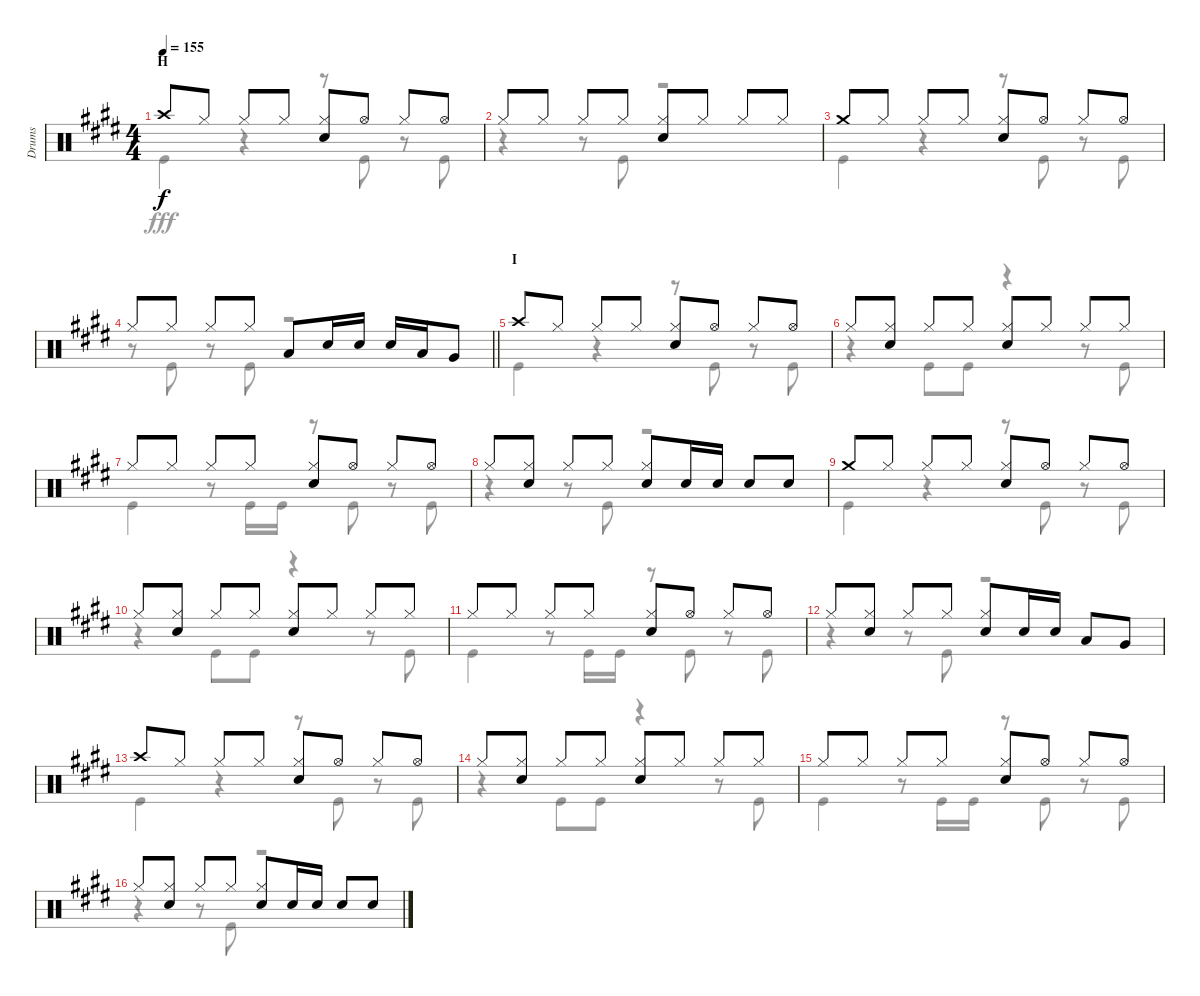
\track ("Drums" "Drums") {instrument percussion}
\staff {score}
\articulation defaults
\voice
\ts (4 4)
\section ("" "H")
\tempo 155
\clef neutral
\ks e "Crash high (hit)".8{dy f} "Hi-Hat (closed)".8 "Hi-Hat (closed)".8 "Hi-Hat (closed)".8
("Hi-Hat (closed)" "Snare (hit) 2").8 "Hi-Hat (open)".8 "Hi-Hat (closed)".8 "Hi-Hat (open)".8 |
"Hi-Hat (closed)".8 "Hi-Hat (closed)".8 "Hi-Hat (closed)".8 "Hi-Hat (closed)".8 ("Hi-Hat (closed)" "Snare (hit) 2").8 "Hi-Hat (closed)".8 "Hi-Hat (closed)".8 "Hi-Hat (closed)".8 |
"Crash medium (hit)".8 "Hi-Hat (closed)".8 "Hi-Hat (closed)".8 "Hi-Hat (closed)".8 ("Hi-Hat (closed)" "Snare (hit) 2").8 "Hi-Hat (open)".8 "Hi-Hat (closed)".8 "Hi-Hat (open)".8 |
\barLineRight lightlight "Hi-Hat (closed)".8 "Hi-Hat (closed)".8 "Hi-Hat (closed)".8 "Hi-Hat (closed)".8 "Low Tom (hit)".8 "Snare (hit) 2".16 "Snare (hit) 2".16 "Snare (hit) 2".16 "Low Tom (hit)".16 "Very Low Tom (hit)".8
|
\section ("" "I")
"Crash high (hit)".8 "Hi-Hat (closed)".8 "Hi-Hat (closed)".8 "Hi-Hat (closed)".8 ("Hi-Hat (closed)" "Snare (hit) 2").8 "Hi-Hat (open)".8 "Hi-Hat (closed)".8 "Hi-Hat (open)".8 |
"Hi-Hat (closed)".8 ("Hi-Hat (closed)" "Snare (hit) 2").8 "Hi-Hat (closed)".8 "Hi-Hat (closed)".8 ("Hi-Hat (closed)" "Snare (hit) 2").8 "Hi-Hat (closed)".8 "Hi-Hat (closed)".8 "Hi-Hat (closed)".8 |
"Hi-Hat (closed)".8 "Hi-Hat (closed)".8 "Hi-Hat (closed)".8 "Hi-Hat (closed)".8 ("Hi-Hat (closed)" "Snare (hit) 2").8 "Hi-Hat (open)".8 "Hi-Hat (closed)".8 "Hi-Hat (open)".8 |
"Hi-Hat (closed)".8 ("Hi-Hat (closed)" "Snare (hit) 2").8 "Hi-Hat (closed)".8 "Hi-Hat (closed)".8 ("Hi-Hat (closed)" "Snare (hit) 2").8 "Snare (hit) 2".16 "Snare (hit) 2".16 "Snare (hit) 2".8 "Snare (hit) 2".8 |
"Crash medium (hit)".8 "Hi-Hat (closed)".8 "Hi-Hat (closed)".8 "Hi-Hat (closed)".8 ("Hi-Hat (closed)" "Snare (hit) 2").8 "Hi-Hat (open)".8 "Hi-Hat (closed)".8 "Hi-Hat (open)".8 |
"Hi-Hat (closed)".8 ("Hi-Hat (closed)" "Snare (hit) 2").8 "Hi-Hat (closed)".8 "Hi-Hat (closed)".8 ("Hi-Hat (closed)" "Snare (hit) 2").8 "Hi-Hat (closed)".8 "Hi-Hat (closed)".8 "Hi-Hat (closed)".8 |
"Hi-Hat (closed)".8 "Hi-Hat (closed)".8 "Hi-Hat (closed)".8 "Hi-Hat (closed)".8 ("Hi-Hat (closed)" "Snare (hit) 2").8 "Hi-Hat (open)".8 "Hi-Hat (closed)".8 "Hi-Hat (open)".8 |
"Hi-Hat (closed)".8 ("Hi-Hat (closed)" "Snare (hit) 2").8 "Hi-Hat (closed)".8 "Hi-Hat (closed)".8 ("Hi-Hat (closed)" "Snare (hit) 2").8 "Snare (hit) 2".16 "Snare (hit) 2".16 "Low Tom (hit)".8 "Very Low Tom (hit)".8 |
"Crash high (hit)".8 "Hi-Hat (closed)".8 "Hi-Hat (closed)".8 "Hi-Hat (closed)".8 ("Hi-Hat (closed)" "Snare (hit) 2").8 "Hi-Hat (open)".8 "Hi-Hat (closed)".8 "Hi-Hat (open)".8 |
"Hi-Hat (closed)".8 ("Hi-Hat (closed)" "Snare (hit) 2").8 "Hi-Hat (closed)".8 "Hi-Hat (closed)".8 ("Hi-Hat (closed)" "Snare (hit) 2").8 "Hi-Hat (closed)".8 "Hi-Hat (closed)".8 "Hi-Hat (closed)".8 |
"Hi-Hat (closed)".8 "Hi-Hat (closed)".8 "Hi-Hat (closed)".8 "Hi-Hat (closed)".8 ("Hi-Hat (closed)" "Snare (hit) 2").8 "Hi-Hat (open)".8 "Hi-Hat (closed)".8 "Hi-Hat (open)".8 |
"Hi-Hat (closed)".8 ("Hi-Hat (closed)" "Snare (hit) 2").8 "Hi-Hat (closed)".8 "Hi-Hat (closed)".8 ("Hi-Hat (closed)" "Snare (hit) 2").8 "Snare (hit) 2".16 "Snare (hit) 2".16 "Snare (hit) 2".8 "Snare (hit) 2".8
\voice
\clef neutral
\ottava regular
\simile none
\ks e "Kick (hit)".4{dy fff}
r.4 r.8 "Kick (hit)".8 r.8 "Kick (hit)".8 |
r.4 r.8 "Kick (hit)".8 r.2 |
"Kick (hit)".4 r.4 r.8 "Kick (hit)".8 r.8 "Kick (hit)".8 |
\barLineRight lightlight
r.8 "Kick (hit)".8 r.8 "Kick (hit)".8 r.2 |
"Kick (hit)".4 r.4 r.8 "Kick (hit)".8 r.8 "Kick (hit)".8 |
r.4 "Kick (hit)".8 "Kick (hit)".8 r.4 r.8 "Kick (hit)".8 |
"Kick (hit)".4 r.8 "Kick (hit)".16 "Kick (hit)".16 r.8 "Kick (hit)".8 r.8 "Kick (hit)".8 |
r.4 r.8 "Kick (hit)".8 r.2 |
"Kick (hit)".4 r.4 r.8 "Kick (hit)".8 r.8 "Kick (hit)".8 |
r.4 "Kick (hit)".8 "Kick (hit)".8 r.4 r.8 "Kick (hit)".8 |
"Kick (hit)".4 r.8 "Kick (hit)".16 "Kick (hit)".16 r.8 "Kick (hit)".8 r.8 "Kick (hit)".8 |
r.4 r.8 "Kick (hit)".8 r.2 |
"Kick (hit)".4 r.4 r.8 "Kick (hit)".8 r.8 "Kick (hit)".8 |
r.4 "Kick (hit)".8 "Kick (hit)".8 r.4 r.8 "Kick (hit)".8 |
"Kick (hit)".4 r.8 "Kick (hit)".16 "Kick (hit)".16 r.8 "Kick (hit)".8 r.8 "Kick (hit)".8 |
r.4 r.8 "Kick (hit)".8 r.2
